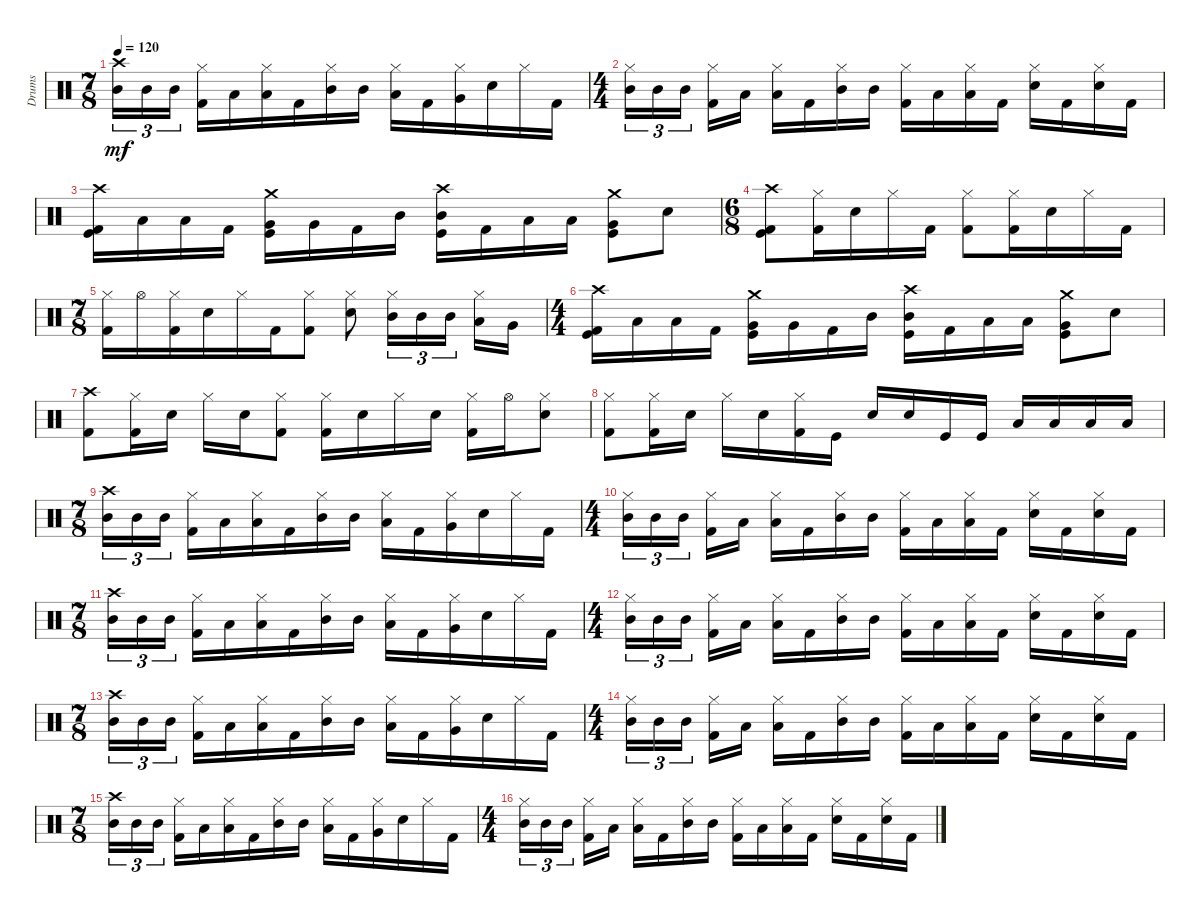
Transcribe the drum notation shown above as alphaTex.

\track ("Drums" "Drums") {instrument percussion}
\staff {score}
\articulation defaults
\ts (7 8)
\tempo 120
\clef neutral
\ks aminor
("Crash high (hit)" "Mid Tom (hit)").16{tu (3 2) dy mf} "Mid Tom (hit)".16{tu (3 2)} "Mid Tom (hit)".16{tu (3 2)} ("Hi-Hat (closed)" "Kick (hit) 2").16 "Low Tom (hit)".16 ("Hi-Hat (closed)" "Low Tom (hit)").16 "Kick (hit) 2".16 ("Mid Tom (hit)" "Hi-Hat (closed)").16 "Mid Tom (hit)".16 ("Low Tom (hit)" "Hi-Hat (closed)").16 "Kick (hit) 2".16 ("Very Low Tom (hit)" "Hi-Hat (closed)").16 "Snare (hit) 2".16 "Hi-Hat (closed)".16 "Kick (hit) 2".16 |
\ts (4 4)
("Hi-Hat (closed)" "Mid Tom (hit)").16{tu (3 2)} "Mid Tom (hit)".16{tu (3 2)} "Mid Tom (hit)".16{tu (3 2)} ("Kick (hit) 2" "Hi-Hat (closed)").16 "Low Tom (hit)".16 ("Hi-Hat (closed)" "Low Tom (hit)").16 "Kick (hit) 2".16 ("Hi-Hat (closed)" "Mid Tom (hit)").16 "Mid Tom (hit)".16 ("Kick (hit) 2" "Hi-Hat (closed)").16 "Low Tom (hit)".16 ("Low Tom (hit)" "Hi-Hat (closed)").16 "Kick (hit) 2".16 ("Hi-Hat (closed)" "Snare (hit) 2").16 "Kick (hit) 2".16 ("Hi-Hat (closed)" "Snare (hit) 2").16 "Kick (hit) 2".16 |
("Kick (hit) 2" "Kick (hit)" "Crash high (hit)").16 "Low Tom (hit)".16 "Low Tom (hit)".16 "Kick (hit) 2".16 ("Crash medium (hit)" "Very Low Tom (hit)" "Kick (hit)").16 "Very Low Tom (hit)".16 "Kick (hit) 2".16 "Mid Tom (hit)".16 ("Kick (hit)" "Crash high (hit)" "Mid Tom (hit)").16 "Kick (hit) 2".16 "Low Tom (hit)".16 "Low Tom (hit)".16 ("Very Low Tom (hit)" "Crash medium (hit)" "Kick (hit)").8 "Snare (hit) 2".8 |
\ts (6 8)
("Crash high (hit)" "Kick (hit) 2" "Kick (hit)").8 ("Hi-Hat (closed)" "Kick (hit) 2").16 "Snare (hit) 2".16 "Hi-Hat (closed)".16 "Kick (hit) 2".16 ("Kick (hit) 2" "Hi-Hat (closed)").8 ("Hi-Hat (closed)" "Kick (hit) 2").16 "Snare (hit) 2".16 "Hi-Hat (closed)".16 "Kick (hit) 2".16 |
\ts (7 8)
("Kick (hit) 2" "Hi-Hat (closed)").16 "Hi-Hat (open)".16 ("Hi-Hat (closed)" "Kick (hit) 2").16 "Snare (hit) 2".16 "Hi-Hat (closed)".16 "Kick (hit) 2".16 ("Kick (hit) 2" "Hi-Hat (closed)").8 ("Hi-Hat (closed)" "Snare (hit) 2").8 ("Mid Tom (hit)" "Hi-Hat (closed)").16{tu (3 2)} "Mid Tom (hit)".16{tu (3 2)} "Mid Tom (hit)".16{tu (3 2)} ("Low Tom (hit)" "Hi-Hat (closed)").16 "Very Low Tom (hit)".16 |
\ts (4 4)
("Kick (hit) 2" "Crash high (hit)" "Kick (hit)").16 "Low Tom (hit)".16 "Low Tom (hit)".16 "Kick (hit) 2".16 ("Very Low Tom (hit)" "Crash medium (hit)" "Kick (hit)").16 "Very Low Tom (hit)".16 "Kick (hit) 2".16 "Mid Tom (hit)".16 ("Mid Tom (hit)" "Kick (hit)" "Crash high (hit)").16 "Kick (hit) 2".16 "Low Tom (hit)".16 "Low Tom (hit)".16 ("Kick (hit)" "Very Low Tom (hit)" "Crash medium (hit)").8 "Snare (hit) 2".8 |
("Crash high (hit)" "Kick (hit) 2").8 ("Hi-Hat (closed)" "Kick (hit) 2").16 "Snare (hit) 2".16 "Hi-Hat (closed)".16 "Snare (hit) 2".16 ("Hi-Hat (closed)" "Kick (hit) 2").8 ("Kick (hit) 2" "Hi-Hat (closed)").16 "Snare (hit) 2".16 "Hi-Hat (closed)".16 "Snare (hit) 2".16 ("Kick (hit) 2" "Hi-Hat (closed)").16 "Hi-Hat (open)".16 ("Snare (hit) 2" "Hi-Hat (closed)").8 |
("Hi-Hat (closed)" "Kick (hit) 2").8 ("Kick (hit) 2" "Hi-Hat (closed)").16 "Snare (hit) 2".16 "Hi-Hat (closed)".16 "Snare (hit) 2".16 ("Hi-Hat (closed)" "Kick (hit) 2").16 "Kick (hit)".16 "Snare (hit) 2".16 "Snare (hit) 2".16 "Kick (hit)".16 "Kick (hit)".16 "Low Tom (hit)".16 "Low Tom (hit)".16 "Low Floor Tom (hit)".16 "Low Floor Tom (hit)".16 |
\ts (7 8)
("Crash high (hit)" "Mid Tom (hit)").16{tu (3 2)} "Mid Tom (hit)".16{tu (3 2)} "Mid Tom (hit)".16{tu (3 2)} ("Hi-Hat (closed)" "Kick (hit) 2").16 "Low Tom (hit)".16 ("Hi-Hat (closed)" "Low Tom (hit)").16 "Kick (hit) 2".16 ("Hi-Hat (closed)" "Mid Tom (hit)").16 "Mid Tom (hit)".16 ("Low Tom (hit)" "Hi-Hat (closed)").16 "Kick (hit) 2".16 ("Very Low Tom (hit)" "Hi-Hat (closed)").16 "Snare (hit) 2".16 "Hi-Hat (closed)".16 "Kick (hit) 2".16 |
\ts (4 4)
("Mid Tom (hit)" "Hi-Hat (closed)").16{tu (3 2)} "Mid Tom (hit)".16{tu (3 2)} "Mid Tom (hit)".16{tu (3 2)} ("Hi-Hat (closed)" "Kick (hit) 2").16 "Low Tom (hit)".16 ("Low Tom (hit)" "Hi-Hat (closed)").16 "Kick (hit) 2".16 ("Hi-Hat (closed)" "Mid Tom (hit)").16 "Mid Tom (hit)".16 ("Kick (hit) 2" "Hi-Hat (closed)").16 "Low Tom (hit)".16 ("Low Tom (hit)" "Hi-Hat (closed)").16 "Kick (hit) 2".16 ("Hi-Hat (closed)" "Snare (hit) 2").16 "Kick (hit) 2".16 ("Snare (hit) 2" "Hi-Hat (closed)").16 "Kick (hit) 2".16 |
\ts (7 8)
("Mid Tom (hit)" "Crash high (hit)").16{tu (3 2)} "Mid Tom (hit)".16{tu (3 2)} "Mid Tom (hit)".16{tu (3 2)} ("Hi-Hat (closed)" "Kick (hit) 2").16 "Low Tom (hit)".16 ("Hi-Hat (closed)" "Low Tom (hit)").16 "Kick (hit) 2".16 ("Hi-Hat (closed)" "Mid Tom (hit)").16 "Mid Tom (hit)".16 ("Hi-Hat (closed)" "Low Tom (hit)").16 "Kick (hit) 2".16 ("Very Low Tom (hit)" "Hi-Hat (closed)").16 "Snare (hit) 2".16 "Hi-Hat (closed)".16 "Kick (hit) 2".16 |
\ts (4 4)
("Mid Tom (hit)" "Hi-Hat (closed)").16{tu (3 2)} "Mid Tom (hit)".16{tu (3 2)} "Mid Tom (hit)".16{tu (3 2)} ("Kick (hit) 2" "Hi-Hat (closed)").16 "Low Tom (hit)".16 ("Low Tom (hit)" "Hi-Hat (closed)").16 "Kick (hit) 2".16 ("Mid Tom (hit)" "Hi-Hat (closed)").16 "Mid Tom (hit)".16 ("Hi-Hat (closed)" "Kick (hit) 2").16 "Low Tom (hit)".16 ("Hi-Hat (closed)" "Low Tom (hit)").16 "Kick (hit) 2".16 ("Hi-Hat (closed)" "Snare (hit) 2").16 "Kick (hit) 2".16 ("Hi-Hat (closed)" "Snare (hit) 2").16 "Kick (hit) 2".16 |
\ts (7 8)
("Mid Tom (hit)" "Crash high (hit)").16{tu (3 2)} "Mid Tom (hit)".16{tu (3 2)} "Mid Tom (hit)".16{tu (3 2)} ("Kick (hit) 2" "Hi-Hat (closed)").16 "Low Tom (hit)".16 ("Hi-Hat (closed)" "Low Tom (hit)").16 "Kick (hit) 2".16 ("Mid Tom (hit)" "Hi-Hat (closed)").16 "Mid Tom (hit)".16 ("Hi-Hat (closed)" "Low Tom (hit)").16 "Kick (hit) 2".16 ("Very Low Tom (hit)" "Hi-Hat (closed)").16 "Snare (hit) 2".16 "Hi-Hat (closed)".16 "Kick (hit) 2".16 |
\ts (4 4)
("Hi-Hat (closed)" "Mid Tom (hit)").16{tu (3 2)} "Mid Tom (hit)".16{tu (3 2)} "Mid Tom (hit)".16{tu (3 2)} ("Hi-Hat (closed)" "Kick (hit) 2").16 "Low Tom (hit)".16 ("Hi-Hat (closed)" "Low Tom (hit)").16 "Kick (hit) 2".16 ("Mid Tom (hit)" "Hi-Hat (closed)").16 "Mid Tom (hit)".16 ("Hi-Hat (closed)" "Kick (hit) 2").16 "Low Tom (hit)".16 ("Hi-Hat (closed)" "Low Tom (hit)").16 "Kick (hit) 2".16 ("Snare (hit) 2" "Hi-Hat (closed)").16 "Kick (hit) 2".16 ("Hi-Hat (closed)" "Snare (hit) 2").16 "Kick (hit) 2".16 |
\ts (7 8)
("Mid Tom (hit)" "Crash high (hit)").16{tu (3 2)} "Mid Tom (hit)".16{tu (3 2)} "Mid Tom (hit)".16{tu (3 2)} ("Hi-Hat (closed)" "Kick (hit) 2").16 "Low Tom (hit)".16 ("Hi-Hat (closed)" "Low Tom (hit)").16 "Kick (hit) 2".16 ("Hi-Hat (closed)" "Mid Tom (hit)").16 "Mid Tom (hit)".16 ("Low Tom (hit)" "Hi-Hat (closed)").16 "Kick (hit) 2".16 ("Hi-Hat (closed)" "Very Low Tom (hit)").16 "Snare (hit) 2".16 "Hi-Hat (closed)".16 "Kick (hit) 2".16 |
\ts (4 4)
("Mid Tom (hit)" "Hi-Hat (closed)").16{tu (3 2)} "Mid Tom (hit)".16{tu (3 2)} "Mid Tom (hit)".16{tu (3 2)} ("Kick (hit) 2" "Hi-Hat (closed)").16 "Low Tom (hit)".16 ("Hi-Hat (closed)" "Low Tom (hit)").16 "Kick (hit) 2".16 ("Mid Tom (hit)" "Hi-Hat (closed)").16 "Mid Tom (hit)".16 ("Kick (hit) 2" "Hi-Hat (closed)").16 "Low Tom (hit)".16 ("Low Tom (hit)" "Hi-Hat (closed)").16 "Kick (hit) 2".16 ("Hi-Hat (closed)" "Snare (hit) 2").16 "Kick (hit) 2".16 ("Snare (hit) 2" "Hi-Hat (closed)").16 "Kick (hit) 2".16
